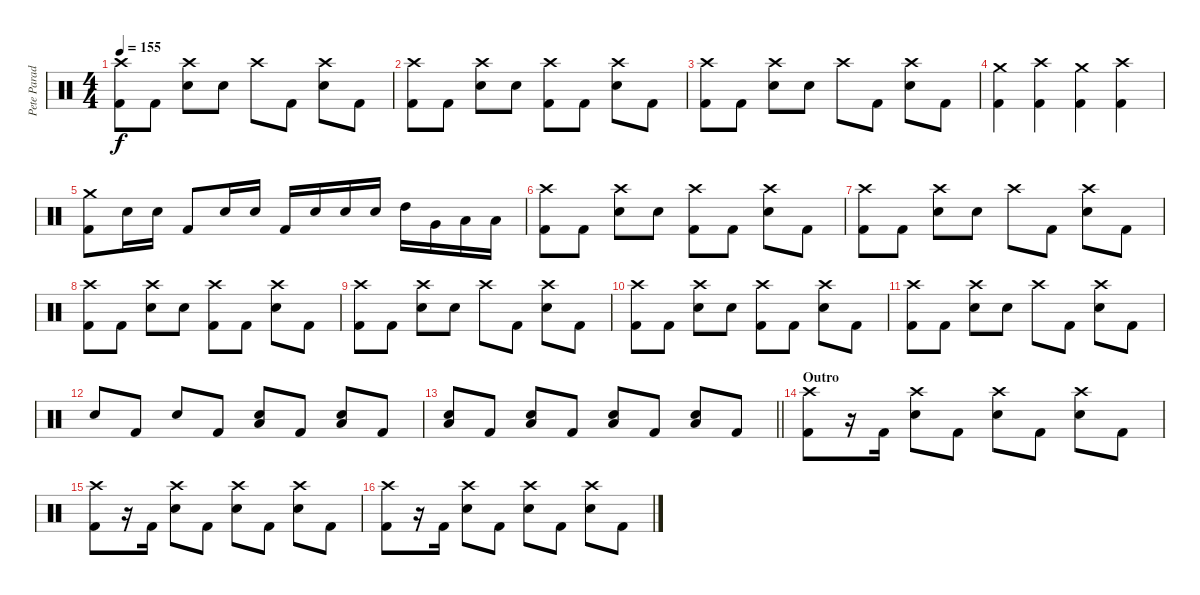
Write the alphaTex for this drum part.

\track ("Pete Parada - Drums" "Pete Parad") {instrument percussion}
\staff {score}
\articulation defaults
\ts (4 4)
\tempo 155
\clef neutral
\ks c
("Crash high (hit)" "Kick (hit) 2").8{dy f} "Kick (hit) 2".8 ("Crash high (hit)" "Electric Snare (hit)").8 "Electric Snare (hit)".8 "Crash high (hit)".8 "Kick (hit) 2".8 ("Crash high (hit)" "Electric Snare (hit)").8 "Kick (hit) 2".8 |
("Crash high (hit)" "Kick (hit) 2").8 "Kick (hit) 2".8 ("Crash high (hit)" "Electric Snare (hit)").8 "Electric Snare (hit)".8 ("Crash high (hit)" "Kick (hit) 2").8 "Kick (hit) 2".8 ("Crash high (hit)" "Electric Snare (hit)").8 "Kick (hit) 2".8 |
("Crash high (hit)" "Kick (hit) 2").8 "Kick (hit) 2".8 ("Crash high (hit)" "Electric Snare (hit)").8 "Electric Snare (hit)".8 "Crash high (hit)".8 "Kick (hit) 2".8 ("Crash high (hit)" "Electric Snare (hit)").8 "Kick (hit) 2".8 |
("Crash medium (hit)" "Kick (hit) 2").4 ("Crash high (hit)" "Kick (hit) 2").4 ("Crash medium (hit)" "Kick (hit) 2").4 ("Crash high (hit)" "Kick (hit) 2").4 |
("Crash medium (hit)" "Kick (hit) 2").8 "Electric Snare (hit)".16 "Electric Snare (hit)".16 "Kick (hit) 2".8 "Electric Snare (hit)".16 "Electric Snare (hit)".16 "Kick (hit) 2".16 "Electric Snare (hit)".16 "Electric Snare (hit)".16 "Electric Snare (hit)".16 "High Tom (hit)".16 "Very Low Tom (hit)".16 "Low Floor Tom (hit)".16 "Low Floor Tom (hit)".16 |
("Crash high (hit)" "Kick (hit) 2").8 "Kick (hit) 2".8 ("Crash high (hit)" "Electric Snare (hit)").8 "Electric Snare (hit)".8 ("Crash high (hit)" "Kick (hit) 2").8 "Kick (hit) 2".8 ("Crash high (hit)" "Electric Snare (hit)").8 "Kick (hit) 2".8 |
("Crash high (hit)" "Kick (hit) 2").8 "Kick (hit) 2".8 ("Crash high (hit)" "Electric Snare (hit)").8 "Electric Snare (hit)".8 "Crash high (hit)".8 "Kick (hit) 2".8 ("Crash high (hit)" "Electric Snare (hit)").8 "Kick (hit) 2".8 |
("Crash high (hit)" "Kick (hit) 2").8 "Kick (hit) 2".8 ("Crash high (hit)" "Electric Snare (hit)").8 "Electric Snare (hit)".8 ("Crash high (hit)" "Kick (hit) 2").8 "Kick (hit) 2".8 ("Crash high (hit)" "Electric Snare (hit)").8 "Kick (hit) 2".8 |
("Crash high (hit)" "Kick (hit) 2").8 "Kick (hit) 2".8 ("Crash high (hit)" "Electric Snare (hit)").8 "Electric Snare (hit)".8 "Crash high (hit)".8 "Kick (hit) 2".8 ("Crash high (hit)" "Electric Snare (hit)").8 "Kick (hit) 2".8 |
("Crash high (hit)" "Kick (hit) 2").8 "Kick (hit) 2".8 ("Crash high (hit)" "Electric Snare (hit)").8 "Electric Snare (hit)".8 ("Crash high (hit)" "Kick (hit) 2").8 "Kick (hit) 2".8 ("Crash high (hit)" "Electric Snare (hit)").8 "Kick (hit) 2".8 |
("Crash high (hit)" "Kick (hit) 2").8 "Kick (hit) 2".8 ("Crash high (hit)" "Electric Snare (hit)").8 "Electric Snare (hit)".8 "Crash high (hit)".8 "Kick (hit) 2".8 ("Crash high (hit)" "Electric Snare (hit)").8 "Kick (hit) 2".8 |
"Electric Snare (hit)".8 "Kick (hit) 2".8 "Electric Snare (hit)".8 "Kick (hit) 2".8 ("Electric Snare (hit)" "Low Floor Tom (hit)").8 "Kick (hit) 2".8 ("Electric Snare (hit)" "Low Floor Tom (hit)").8 "Kick (hit) 2".8 |
\barLineRight lightlight
("Electric Snare (hit)" "Low Floor Tom (hit)").8 "Kick (hit) 2".8 ("Electric Snare (hit)" "Low Floor Tom (hit)").8 "Kick (hit) 2".8 ("Electric Snare (hit)" "Low Floor Tom (hit)").8 "Kick (hit) 2".8 ("Electric Snare (hit)" "Low Floor Tom (hit)").8 "Kick (hit) 2".8 |
\section ("" "Outro")
("Crash high (hit)" "Kick (hit) 2").8 r.16 "Kick (hit) 2".16 ("Crash high (hit)" "Electric Snare (hit)").8 "Kick (hit) 2".8 ("Crash high (hit)" "Electric Snare (hit)").8 "Kick (hit) 2".8 ("Crash high (hit)" "Electric Snare (hit)").8 "Kick (hit) 2".8 |
("Crash high (hit)" "Kick (hit) 2").8 r.16 "Kick (hit) 2".16 ("Crash high (hit)" "Electric Snare (hit)").8 "Kick (hit) 2".8 ("Crash high (hit)" "Electric Snare (hit)").8 "Kick (hit) 2".8 ("Crash high (hit)" "Electric Snare (hit)").8 "Kick (hit) 2".8 |
("Crash high (hit)" "Kick (hit) 2").8 r.16 "Kick (hit) 2".16 ("Crash high (hit)" "Electric Snare (hit)").8 "Kick (hit) 2".8 ("Crash high (hit)" "Electric Snare (hit)").8 "Kick (hit) 2".8 ("Crash high (hit)" "Electric Snare (hit)").8 "Kick (hit) 2".8
